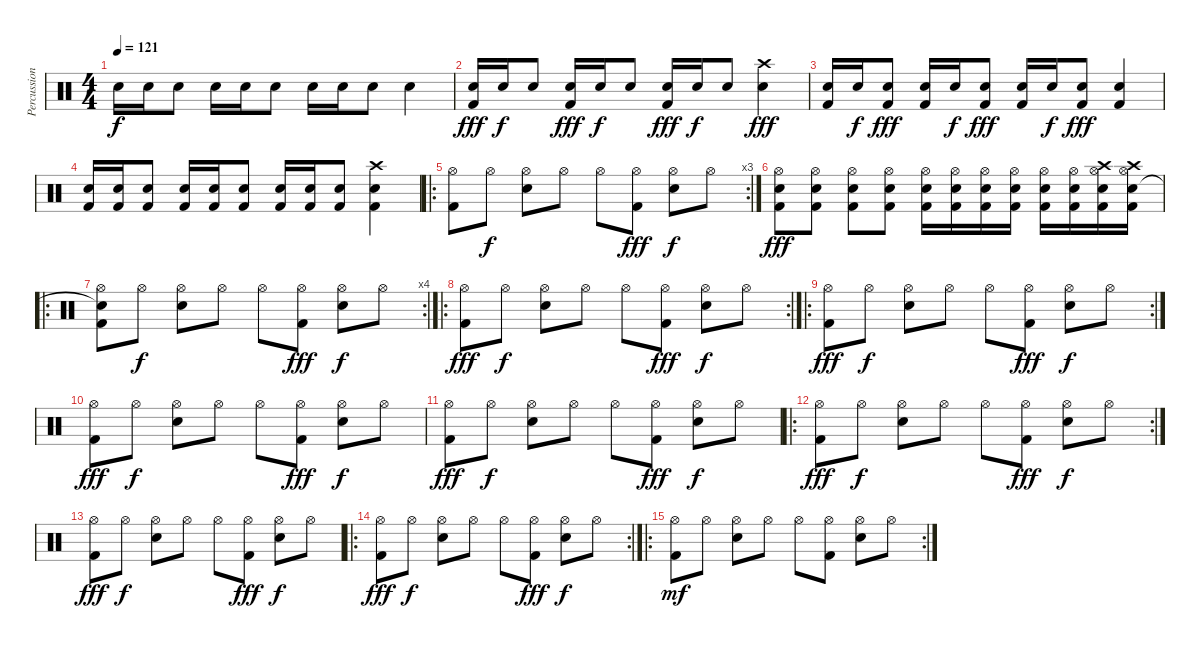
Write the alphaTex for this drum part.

\track ("Percussions" "Percussion") {instrument percussion}
\staff {score}
\articulation defaults
\ts (4 4)
\tempo 121
\clef neutral
\ks c "Snare (hit) 2".16{dy f} "Snare (hit) 2".16 "Snare (hit) 2".8 "Snare (hit) 2".16 "Snare (hit) 2".16 "Snare (hit) 2".8 "Snare (hit) 2".16 "Snare (hit) 2".16 "Snare (hit) 2".8 "Snare (hit) 2".4
|
("Snare (hit) 2" "Kick (hit) 2").16{dy fff} "Snare (hit) 2".16{dy f} "Snare (hit) 2".8 ("Snare (hit) 2" "Kick (hit) 2").16{dy fff} "Snare (hit) 2".16{dy f} "Snare (hit) 2".8 ("Snare (hit) 2" "Kick (hit) 2").16{dy fff} "Snare (hit) 2".16{dy f} "Snare (hit) 2".8 ("Snare (hit) 2" "Crash high (hit)").4{dy fff} |
("Snare (hit) 2" "Kick (hit) 2").16 "Snare (hit) 2".16{dy f} ("Snare (hit) 2" "Kick (hit) 2").8{dy fff} ("Snare (hit) 2" "Kick (hit) 2").16 "Snare (hit) 2".16{dy f} ("Snare (hit) 2" "Kick (hit) 2").8{dy fff} ("Snare (hit) 2" "Kick (hit) 2").16 "Snare (hit) 2".16{dy f} ("Snare (hit) 2" "Kick (hit) 2").8{dy fff} ("Snare (hit) 2" "Kick (hit) 2").4 |
("Snare (hit) 2" "Kick (hit) 2").16 ("Snare (hit) 2" "Kick (hit) 2").16 ("Snare (hit) 2" "Kick (hit) 2").8 ("Snare (hit) 2" "Kick (hit) 2").16 ("Snare (hit) 2" "Kick (hit) 2").16 ("Snare (hit) 2" "Kick (hit) 2").8 ("Snare (hit) 2" "Kick (hit) 2").16 ("Snare (hit) 2" "Kick (hit) 2").16 ("Snare (hit) 2" "Kick (hit) 2").8 ("Snare (hit) 2" "Kick (hit) 2" "Crash high (hit)").4 |
\ro
\rc 3
("Kick (hit) 2" "Hi-Hat (open)").8 "Hi-Hat (open)".8{dy f} ("Snare (hit) 2" "Hi-Hat (open)").8 "Hi-Hat (open)".8 "Hi-Hat (open)".8 ("Kick (hit) 2" "Hi-Hat (open)").8{dy fff} ("Snare (hit) 2" "Hi-Hat (open)").8{dy f} "Hi-Hat (open)".8 |
("Kick (hit) 2" "Hi-Hat (open)" "Snare (hit) 2").8{dy fff} ("Kick (hit) 2" "Hi-Hat (open)" "Snare (hit) 2").8 ("Kick (hit) 2" "Hi-Hat (open)" "Snare (hit) 2").8 ("Kick (hit) 2" "Hi-Hat (open)" "Snare (hit) 2").8 ("Kick (hit) 2" "Hi-Hat (open)" "Snare (hit) 2").16 ("Kick (hit) 2" "Hi-Hat (open)" "Snare (hit) 2").16 ("Kick (hit) 2" "Hi-Hat (open)" "Snare (hit) 2").16 ("Kick (hit) 2" "Hi-Hat (open)" "Snare (hit) 2").16 ("Kick (hit) 2" "Hi-Hat (open)" "Snare (hit) 2").16 ("Kick (hit) 2" "Hi-Hat (open)" "Snare (hit) 2").16 ("Kick (hit) 2" "Hi-Hat (open)" "Snare (hit) 2" "Crash high (hit)").16 ("Kick (hit) 2" "Hi-Hat (open)" "Snare (hit) 2" "Crash high (hit)").16 |
\ro
\rc 4
("Kick (hit) 2" "Hi-Hat (open)" "Snare (hit)"{t}).8 "Hi-Hat (open)".8{dy f} ("Snare (hit) 2" "Hi-Hat (open)").8 "Hi-Hat (open)".8 "Hi-Hat (open)".8 ("Kick (hit) 2" "Hi-Hat (open)").8{dy fff} ("Snare (hit) 2" "Hi-Hat (open)").8{dy f} "Hi-Hat (open)".8 |
\ro
\rc 2
("Kick (hit) 2" "Hi-Hat (open)").8{dy fff} "Hi-Hat (open)".8{dy f} ("Snare (hit) 2" "Hi-Hat (open)").8 "Hi-Hat (open)".8 "Hi-Hat (open)".8 ("Kick (hit) 2" "Hi-Hat (open)").8{dy fff} ("Snare (hit) 2" "Hi-Hat (open)").8{dy f} "Hi-Hat (open)".8 |
\ro
\rc 2
("Kick (hit) 2" "Hi-Hat (open)").8{dy fff} "Hi-Hat (open)".8{dy f} ("Snare (hit) 2" "Hi-Hat (open)").8 "Hi-Hat (open)".8 "Hi-Hat (open)".8 ("Kick (hit) 2" "Hi-Hat (open)").8{dy fff} ("Snare (hit) 2" "Hi-Hat (open)").8{dy f} "Hi-Hat (open)".8 |
("Kick (hit) 2" "Hi-Hat (open)").8{dy fff} "Hi-Hat (open)".8{dy f} ("Snare (hit) 2" "Hi-Hat (open)").8 "Hi-Hat (open)".8 "Hi-Hat (open)".8 ("Kick (hit) 2" "Hi-Hat (open)").8{dy fff} ("Snare (hit) 2" "Hi-Hat (open)").8{dy f} "Hi-Hat (open)".8 |
("Kick (hit) 2" "Hi-Hat (open)").8{dy fff} "Hi-Hat (open)".8{dy f} ("Snare (hit) 2" "Hi-Hat (open)").8 "Hi-Hat (open)".8 "Hi-Hat (open)".8 ("Kick (hit) 2" "Hi-Hat (open)").8{dy fff} ("Snare (hit) 2" "Hi-Hat (open)").8{dy f} "Hi-Hat (open)".8 |
\ro
\rc 2
("Kick (hit) 2" "Hi-Hat (open)").8{dy fff} "Hi-Hat (open)".8{dy f} ("Snare (hit) 2" "Hi-Hat (open)").8 "Hi-Hat (open)".8 "Hi-Hat (open)".8 ("Kick (hit) 2" "Hi-Hat (open)").8{dy fff} ("Snare (hit) 2" "Hi-Hat (open)").8{dy f} "Hi-Hat (open)".8 |
("Kick (hit) 2" "Hi-Hat (open)").8{dy fff} "Hi-Hat (open)".8{dy f} ("Snare (hit) 2" "Hi-Hat (open)").8 "Hi-Hat (open)".8 "Hi-Hat (open)".8 ("Kick (hit) 2" "Hi-Hat (open)").8{dy fff} ("Snare (hit) 2" "Hi-Hat (open)").8{dy f} "Hi-Hat (open)".8 |
\ro
\rc 2
("Kick (hit) 2" "Hi-Hat (open)").8{dy fff} "Hi-Hat (open)".8{dy f} ("Snare (hit) 2" "Hi-Hat (open)").8 "Hi-Hat (open)".8 "Hi-Hat (open)".8 ("Kick (hit) 2" "Hi-Hat (open)").8{dy fff} ("Snare (hit) 2" "Hi-Hat (open)").8{dy f} "Hi-Hat (open)".8 |
\ro
\rc 2
("Kick (hit) 2" "Hi-Hat (open)").8{dy mf} "Hi-Hat (open)".8 ("Snare (hit) 2" "Hi-Hat (open)").8 "Hi-Hat (open)".8 "Hi-Hat (open)".8 ("Kick (hit) 2" "Hi-Hat (open)").8 ("Snare (hit) 2" "Hi-Hat (open)").8 "Hi-Hat (open)".8
